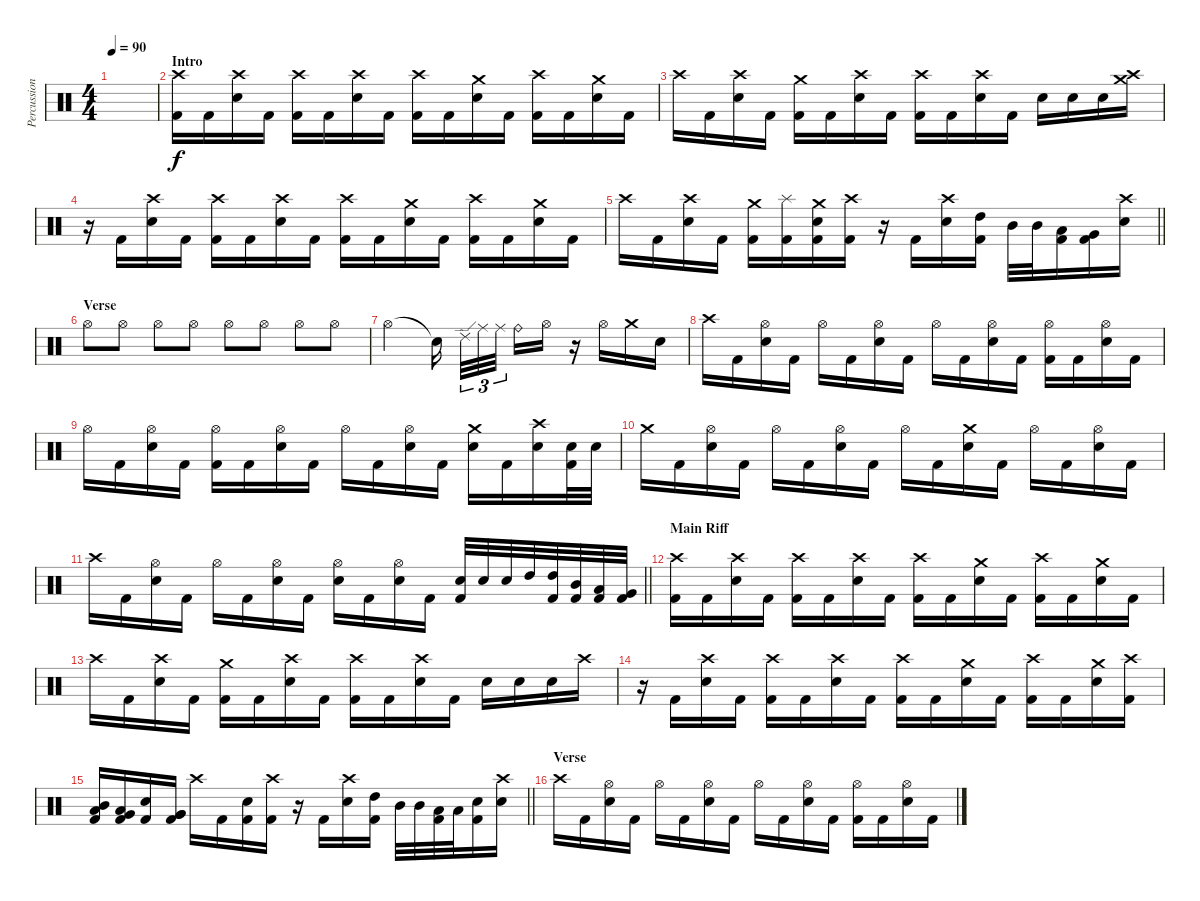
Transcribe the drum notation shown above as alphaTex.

\track ("Percussion" "Percussion") {instrument percussion}
\staff {score}
\articulation defaults
\ts (4 4)
\tempo 90
\clef neutral
\ks c
|
\section ("" "Intro")
("Crash high (hit)" "Kick (hit) 2").16 "Kick (hit) 2".16 ("Crash high (hit)" "Electric Snare (hit)").16 "Kick (hit) 2".16 ("Crash high (hit)" "Kick (hit) 2").16 "Kick (hit) 2".16 ("Crash high (hit)" "Electric Snare (hit)").16 "Kick (hit) 2".16 ("Crash high (hit)" "Kick (hit) 2").16 "Kick (hit) 2".16 ("Crash medium (hit)" "Electric Snare (hit)").16 "Kick (hit) 2".16 ("Crash high (hit)" "Kick (hit) 2").16 "Kick (hit) 2".16 ("Crash medium (hit)" "Electric Snare (hit)").16 "Kick (hit) 2".16 |
"Crash high (hit)".16 "Kick (hit) 2".16 ("Crash high (hit)" "Electric Snare (hit)").16 "Kick (hit) 2".16 ("Crash medium (hit)" "Kick (hit) 2").16 "Kick (hit) 2".16 ("Crash high (hit)" "Electric Snare (hit)").16 "Kick (hit) 2".16 ("Crash high (hit)" "Kick (hit) 2").16 "Kick (hit) 2".16 ("Crash high (hit)" "Electric Snare (hit)").16 "Kick (hit) 2".16 "Electric Snare (hit)".16 "Electric Snare (hit)".16 "Electric Snare (hit)".16 ("Crash high (hit)" "Crash medium (hit)").16 |
r.16 "Kick (hit) 2".16 ("Crash high (hit)" "Electric Snare (hit)").16 "Kick (hit) 2".16 ("Crash high (hit)" "Kick (hit) 2").16 "Kick (hit) 2".16 ("Crash high (hit)" "Electric Snare (hit)").16 "Kick (hit) 2".16 ("Crash high (hit)" "Kick (hit) 2").16 "Kick (hit) 2".16 ("Crash medium (hit)" "Electric Snare (hit)").16 "Kick (hit) 2".16 ("Crash high (hit)" "Kick (hit) 2").16 "Kick (hit) 2".16 ("Crash medium (hit)" "Electric Snare (hit)").16 "Kick (hit) 2".16 |
\barLineRight lightlight "Crash high (hit)".16 "Kick (hit) 2".16
("Crash high (hit)" "Electric Snare (hit)").16 "Kick (hit) 2".16 ("Crash medium (hit)" "Kick (hit) 2").16 ("Splash (hit)" "Kick (hit) 2").16 ("Crash medium (hit)" "Electric Snare (hit)" "Kick (hit) 2").16 ("Crash high (hit)" "Kick (hit) 2").16 r.16 "Kick (hit) 2".16 ("Crash high (hit)" "Electric Snare (hit)").16 ("High Tom (hit)" "Kick (hit) 2").16 "Mid Tom (hit)".32 "Mid Tom (hit)".32 ("Low Tom (hit)" "Kick (hit) 2").16 ("Very Low Tom (hit)" "Kick (hit) 2").16 ("Crash high (hit)" "Electric Snare (hit)").16 |
\section ("" "Verse")
"Hi-Hat (open)".8 "Hi-Hat (open)".8 "Hi-Hat (open)".8 "Hi-Hat (open)".8 "Hi-Hat (open)".8 "Hi-Hat (open)".8 "Hi-Hat (open)".8 "Hi-Hat (open)".8 |
"Hi-Hat (open)".2 "Snare (hit)"{t}.16 "Ride (edge) 2".32{tu (3 2)} "Ride (middle)".32{tu (3 2)} "Ride (middle)".32{tu (3 2)} "Ride (bell)".16 "Hi-Hat (open)".16 r.16 "Hi-Hat (open)".16 "Crash medium (hit)".16 "Electric Snare (hit)".16 |
"Crash high (hit)".16 "Kick (hit) 2".16 ("Hi-Hat (open)" "Electric Snare (hit)").16 "Kick (hit) 2".16 "Hi-Hat (open)".16 "Kick (hit) 2".16 ("Hi-Hat (open)" "Electric Snare (hit)").16 "Kick (hit) 2".16 "Hi-Hat (open)".16 "Kick (hit) 2".16 ("Hi-Hat (open)" "Electric Snare (hit)").16 "Kick (hit) 2".16 ("Hi-Hat (open)" "Kick (hit) 2").16 "Kick (hit) 2".16 ("Hi-Hat (open)" "Electric Snare (hit)").16 "Kick (hit) 2".16 |
"Hi-Hat (open)".16 "Kick (hit) 2".16 ("Hi-Hat (open)" "Electric Snare (hit)").16 "Kick (hit) 2".16 ("Hi-Hat (open)" "Kick (hit) 2").16 "Kick (hit) 2".16 ("Hi-Hat (open)" "Electric Snare (hit)").16 "Kick (hit) 2".16 "Hi-Hat (open)".16 "Kick (hit) 2".16 ("Hi-Hat (open)" "Electric Snare (hit)").16 "Kick (hit) 2".16 ("Crash medium (hit)" "Electric Snare (hit)").16 "Kick (hit) 2".16 ("Crash high (hit)" "Electric Snare (hit)").16 ("Electric Snare (hit)" "Kick (hit) 2").32 "Electric Snare (hit)".32 |
"Crash medium (hit)".16 "Kick (hit) 2".16 ("Hi-Hat (open)" "Electric Snare (hit)").16 "Kick (hit) 2".16 "Hi-Hat (open)".16 "Kick (hit) 2".16 ("Hi-Hat (open)" "Electric Snare (hit)").16 "Kick (hit) 2".16 "Hi-Hat (open)".16 "Kick (hit) 2".16 ("Crash medium (hit)" "Electric Snare (hit)").16 "Kick (hit) 2".16 "Hi-Hat (open)".16 "Kick (hit) 2".16 ("Hi-Hat (open)" "Electric Snare (hit)").16 "Kick (hit) 2".16 |
\barLineRight lightlight "Crash high (hit)".16 "Kick (hit) 2".16
("Hi-Hat (open)" "Electric Snare (hit)").16 "Kick (hit) 2".16 "Hi-Hat (open)".16 "Kick (hit) 2".16 ("Hi-Hat (open)" "Electric Snare (hit)").16 "Kick (hit) 2".16 ("Hi-Hat (open)" "Electric Snare (hit)").16 "Kick (hit) 2".16 ("Hi-Hat (open)" "Electric Snare (hit)").16 "Kick (hit) 2".16 ("Electric Snare (hit)" "Kick (hit) 2").32 "Electric Snare (hit)".32 "Electric Snare (hit)".32 "High Tom (hit)".32 ("High Tom (hit)" "Kick (hit) 2").32 ("Mid Tom (hit)" "Kick (hit) 2").32 ("Low Tom (hit)" "Kick (hit) 2").32 ("Very Low Tom (hit)" "Kick (hit) 2").32 |
\section ("" "Main Riff")
("Crash high (hit)" "Kick (hit) 2").16 "Kick (hit) 2".16 ("Crash high (hit)" "Electric Snare (hit)").16 "Kick (hit) 2".16 ("Crash high (hit)" "Kick (hit) 2").16 "Kick (hit) 2".16 ("Crash high (hit)" "Electric Snare (hit)").16 "Kick (hit) 2".16 ("Crash high (hit)" "Kick (hit) 2").16 "Kick (hit) 2".16 ("Crash medium (hit)" "Electric Snare (hit)").16 "Kick (hit) 2".16 ("Crash high (hit)" "Kick (hit) 2").16 "Kick (hit) 2".16 ("Crash medium (hit)" "Electric Snare (hit)").16 "Kick (hit) 2".16 |
"Crash high (hit)".16 "Kick (hit) 2".16 ("Crash high (hit)" "Electric Snare (hit)").16 "Kick (hit) 2".16 ("Crash medium (hit)" "Kick (hit) 2").16 "Kick (hit) 2".16 ("Crash high (hit)" "Electric Snare (hit)").16 "Kick (hit) 2".16 ("Crash high (hit)" "Kick (hit) 2").16 "Kick (hit) 2".16 ("Crash high (hit)" "Electric Snare (hit)").16 "Kick (hit) 2".16 "Electric Snare (hit)".16 "Electric Snare (hit)".16 "Electric Snare (hit)".16 "Crash high (hit)".16 |
r.16 "Kick (hit) 2".16 ("Crash high (hit)" "Electric Snare (hit)").16 "Kick (hit) 2".16 ("Crash high (hit)" "Kick (hit) 2").16 "Kick (hit) 2".16 ("Crash high (hit)" "Electric Snare (hit)").16 "Kick (hit) 2".16 ("Crash high (hit)" "Kick (hit) 2").16 "Kick (hit) 2".16 ("Crash medium (hit)" "Electric Snare (hit)").16 "Kick (hit) 2".16 ("Crash high (hit)" "Kick (hit) 2").16 "Kick (hit) 2".16 ("Crash medium (hit)" "Electric Snare (hit)").16 ("Crash high (hit)" "Kick (hit) 2").16 |
\barLineRight lightlight
("Mid Tom (hit)" "Low Tom (hit)" "Kick (hit) 2").16 ("Low Tom (hit)" "Very Low Tom (hit)" "Kick (hit) 2").16 ("Electric Snare (hit)" "Kick (hit) 2").16 ("Very Low Tom (hit)" "Very Low Tom (hit)" "Kick (hit) 2").16 "Crash high (hit)".16 "Kick (hit) 2".16 ("Electric Snare (hit)" "Kick (hit) 2").16 ("Crash high (hit)" "Kick (hit) 2").16 r.16 "Kick (hit) 2".16 ("Crash high (hit)" "Electric Snare (hit)").16 ("High Tom (hit)" "Kick (hit) 2").16 "Mid Tom (hit)".32 "Mid Tom (hit)".32 ("Low Tom (hit)" "Kick (hit) 2").32 "Low Tom (hit)".32 ("Electric Snare (hit)" "Kick (hit) 2").16 ("Crash high (hit)" "Electric Snare (hit)").16 |
\section ("" "Verse")
"Crash high (hit)".16 "Kick (hit) 2".16 ("Hi-Hat (open)" "Electric Snare (hit)").16 "Kick (hit) 2".16 "Hi-Hat (open)".16 "Kick (hit) 2".16 ("Hi-Hat (open)" "Electric Snare (hit)").16 "Kick (hit) 2".16 "Hi-Hat (open)".16 "Kick (hit) 2".16 ("Hi-Hat (open)" "Electric Snare (hit)").16 "Kick (hit) 2".16 ("Hi-Hat (open)" "Kick (hit) 2").16 "Kick (hit) 2".16 ("Hi-Hat (open)" "Electric Snare (hit)").16 "Kick (hit) 2".16
